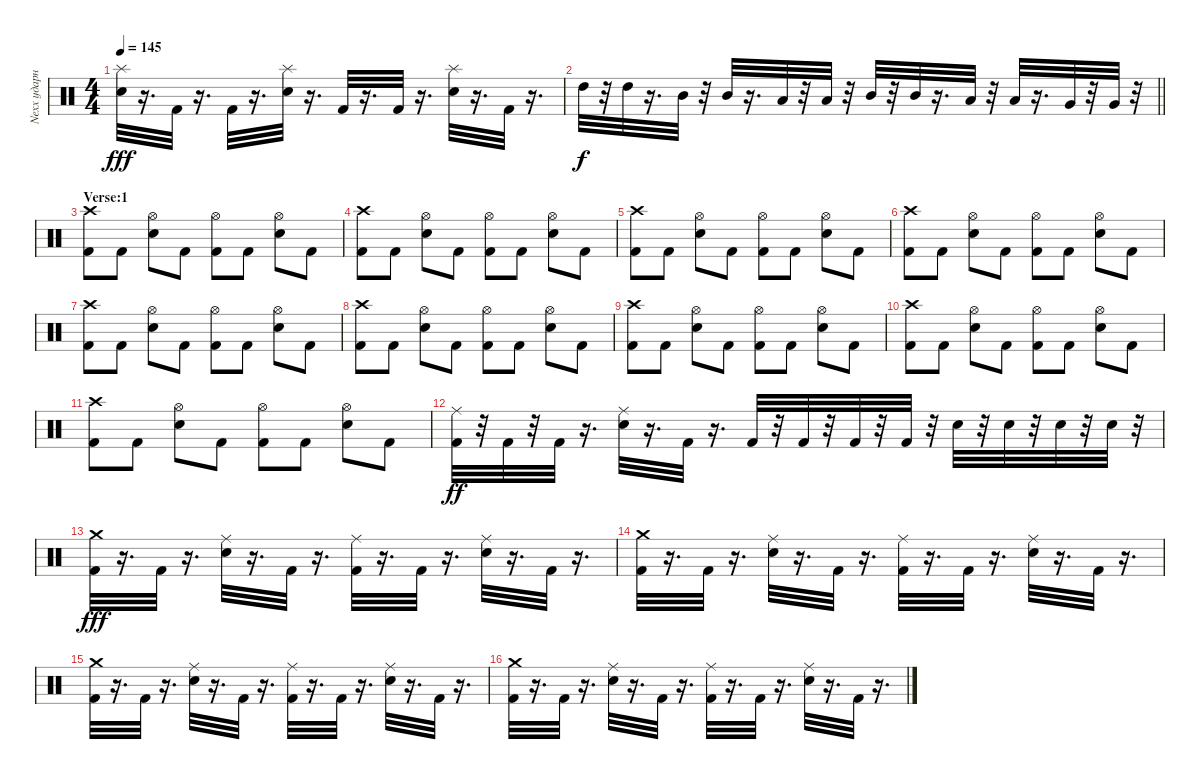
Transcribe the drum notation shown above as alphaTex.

\track ("Nexx ударные" "Nexx ударн") {instrument percussion}
\staff {score}
\articulation defaults
\ts (4 4)
\tempo 145
\clef neutral
\ks c
("Snare (hit) 2" "Splash (hit)").32{dy fff} r.16{d} "Kick (hit) 2".32 r.16{d} "Kick (hit) 2".32 r.16{d} ("Splash (hit)" "Snare (hit) 2").32 r.16{d} "Kick (hit) 2".32 r.16{d} "Kick (hit) 2".32 r.16{d} ("Splash (hit)" "Snare (hit) 2").32 r.16{d} "Kick (hit) 2".32 r.16{d} |
\barLineRight lightlight "High Tom (hit)".32{dy f}
r.32 "High Tom (hit)".32 r.16{d} "Mid Tom (hit)".32 r.32 "Mid Tom (hit)".32 r.16{d} "Low Tom (hit)".32 r.32 "Low Tom (hit)".32 r.32 "Mid Tom (hit)".32 r.32 "Mid Tom (hit)".32 r.16{d} "Low Tom (hit)".32 r.32 "Low Tom (hit)".32 r.16{d} "Very Low Tom (hit)".32 r.32 "Very Low Tom (hit)".32 r.32 |
\section ("" "Verse:1")
("Crash high (hit)" "Kick (hit) 2").8 "Kick (hit) 2".8 ("Snare (hit) 2" "Hi-Hat (open)").8 "Kick (hit) 2".8 ("Hi-Hat (open)" "Kick (hit) 2").8 "Kick (hit) 2".8 ("Snare (hit) 2" "Hi-Hat (open)").8 "Kick (hit) 2".8 |
("Crash high (hit)" "Kick (hit) 2").8 "Kick (hit) 2".8 ("Snare (hit) 2" "Hi-Hat (open)").8 "Kick (hit) 2".8 ("Hi-Hat (open)" "Kick (hit) 2").8 "Kick (hit) 2".8 ("Snare (hit) 2" "Hi-Hat (open)").8 "Kick (hit) 2".8 |
("Crash high (hit)" "Kick (hit) 2").8 "Kick (hit) 2".8 ("Snare (hit) 2" "Hi-Hat (open)").8 "Kick (hit) 2".8 ("Hi-Hat (open)" "Kick (hit) 2").8 "Kick (hit) 2".8 ("Snare (hit) 2" "Hi-Hat (open)").8 "Kick (hit) 2".8 |
("Crash high (hit)" "Kick (hit) 2").8 "Kick (hit) 2".8 ("Snare (hit) 2" "Hi-Hat (open)").8 "Kick (hit) 2".8 ("Hi-Hat (open)" "Kick (hit) 2").8 "Kick (hit) 2".8 ("Snare (hit) 2" "Hi-Hat (open)").8 "Kick (hit) 2".8 |
("Crash high (hit)" "Kick (hit) 2").8 "Kick (hit) 2".8 ("Snare (hit) 2" "Hi-Hat (open)").8 "Kick (hit) 2".8 ("Hi-Hat (open)" "Kick (hit) 2").8 "Kick (hit) 2".8 ("Snare (hit) 2" "Hi-Hat (open)").8 "Kick (hit) 2".8 |
("Crash high (hit)" "Kick (hit) 2").8 "Kick (hit) 2".8 ("Snare (hit) 2" "Hi-Hat (open)").8 "Kick (hit) 2".8 ("Hi-Hat (open)" "Kick (hit) 2").8 "Kick (hit) 2".8 ("Snare (hit) 2" "Hi-Hat (open)").8 "Kick (hit) 2".8 |
("Crash high (hit)" "Kick (hit) 2").8 "Kick (hit) 2".8 ("Snare (hit) 2" "Hi-Hat (open)").8 "Kick (hit) 2".8 ("Hi-Hat (open)" "Kick (hit) 2").8 "Kick (hit) 2".8 ("Snare (hit) 2" "Hi-Hat (open)").8 "Kick (hit) 2".8 |
("Crash high (hit)" "Kick (hit) 2").8 "Kick (hit) 2".8 ("Snare (hit) 2" "Hi-Hat (open)").8 "Kick (hit) 2".8 ("Hi-Hat (open)" "Kick (hit) 2").8 "Kick (hit) 2".8 ("Snare (hit) 2" "Hi-Hat (open)").8 "Kick (hit) 2".8 |
("Crash high (hit)" "Kick (hit) 2").8 "Kick (hit) 2".8 ("Snare (hit) 2" "Hi-Hat (open)").8 "Kick (hit) 2".8 ("Hi-Hat (open)" "Kick (hit) 2").8 "Kick (hit) 2".8 ("Snare (hit) 2" "Hi-Hat (open)").8 "Kick (hit) 2".8 |
("Ride (middle)" "Kick (hit) 2").32{dy ff} r.32 "Kick (hit) 2".32 r.32 "Kick (hit) 2".32 r.16{d} ("Ride (middle)" "Electric Snare (hit)").32 r.16{d} "Kick (hit) 2".32 r.16{d} "Kick (hit) 2".32 r.32 "Kick (hit) 2".32 r.32 "Kick (hit) 2".32 r.32 "Kick (hit) 2".32 r.32 "Electric Snare (hit)".32 r.32 "Electric Snare (hit)".32 r.32 "Electric Snare (hit)".32 r.32 "Electric Snare (hit)".32 r.32 |
("Crash medium (hit)" "Kick (hit) 2").32{dy fff} r.16{d} "Kick (hit) 2".32 r.16{d} ("Ride (middle)" "Snare (hit) 2").32 r.16{d} "Kick (hit) 2".32 r.16{d} ("Kick (hit) 2" "Ride (middle)").32 r.16{d} "Kick (hit) 2".32 r.16{d} ("Snare (hit) 2" "Ride (middle)").32 r.16{d} "Kick (hit) 2".32 r.16{d} |
("Crash medium (hit)" "Kick (hit) 2").32 r.16{d} "Kick (hit) 2".32 r.16{d} ("Ride (middle)" "Snare (hit) 2").32 r.16{d} "Kick (hit) 2".32 r.16{d} ("Kick (hit) 2" "Ride (middle)").32 r.16{d} "Kick (hit) 2".32 r.16{d} ("Snare (hit) 2" "Ride (middle)").32 r.16{d} "Kick (hit) 2".32 r.16{d} |
("Crash medium (hit)" "Kick (hit) 2").32 r.16{d} "Kick (hit) 2".32 r.16{d} ("Ride (middle)" "Snare (hit) 2").32 r.16{d} "Kick (hit) 2".32 r.16{d} ("Kick (hit) 2" "Ride (middle)").32 r.16{d} "Kick (hit) 2".32 r.16{d} ("Snare (hit) 2" "Ride (middle)").32 r.16{d} "Kick (hit) 2".32 r.16{d} |
("Crash medium (hit)" "Kick (hit) 2").32 r.16{d} "Kick (hit) 2".32 r.16{d} ("Ride (middle)" "Snare (hit) 2").32 r.16{d} "Kick (hit) 2".32 r.16{d} ("Kick (hit) 2" "Ride (middle)").32 r.16{d} "Kick (hit) 2".32 r.16{d} ("Snare (hit) 2" "Ride (middle)").32 r.16{d} "Kick (hit) 2".32 r.16{d}
